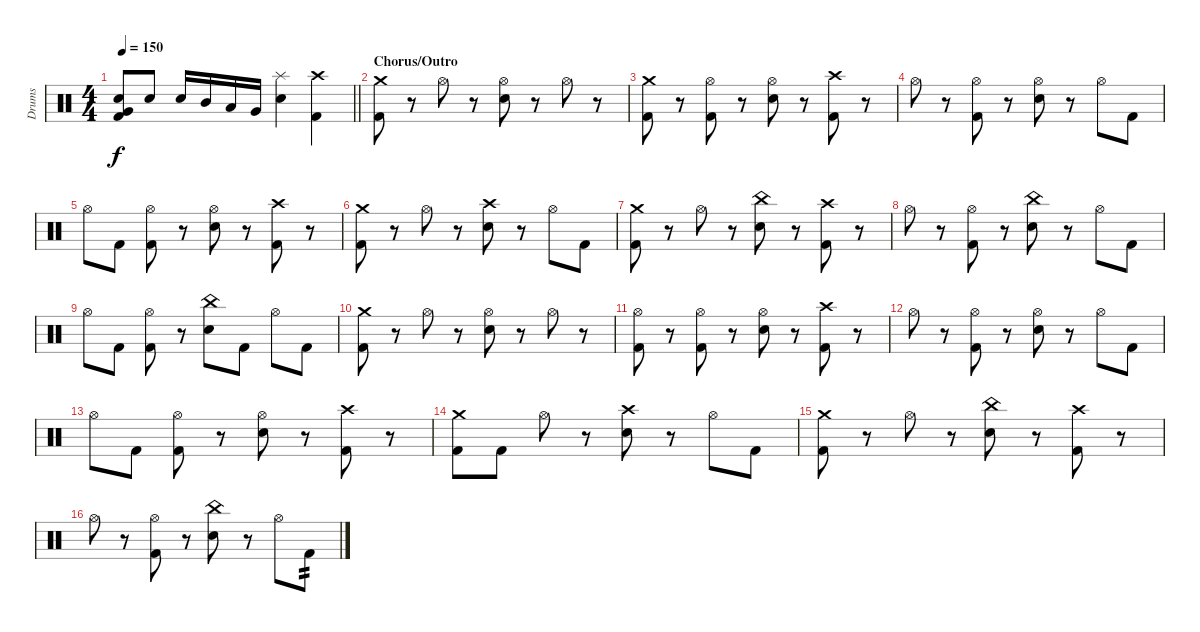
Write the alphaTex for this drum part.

\track ("Drums" "Drums") {instrument percussion}
\staff {score}
\articulation defaults
\ts (4 4)
\tempo 150
\clef neutral
\barLineRight lightlight
\ks c
("Electric Snare (hit)" "Very Low Tom (hit)" "Kick (hit) 2").8{dy f} "Electric Snare (hit)".8 "Electric Snare (hit)".16 "Mid Tom (hit)".16 "Low Tom (hit)".16 "Very Low Tom (hit)".16 ("Splash (hit)" "Electric Snare (hit)").4 ("Crash high (hit)" "Kick (hit) 2").4 |
\section ("" "Chorus/Outro")
("Crash medium (hit)" "Kick (hit) 2").8 r.8 "Hi-Hat (open)".8 r.8 ("Hi-Hat (open)" "Electric Snare (hit)").8 r.8 "Hi-Hat (open)".8 r.8 |
("Crash medium (hit)" "Kick (hit) 2").8 r.8 ("Hi-Hat (open)" "Kick (hit) 2").8 r.8 ("Hi-Hat (open)" "Electric Snare (hit)").8 r.8 ("Crash high (hit)" "Kick (hit) 2").8 r.8 |
"Hi-Hat (open)".8 r.8 ("Hi-Hat (open)" "Kick (hit) 2").8 r.8 ("Hi-Hat (open)" "Electric Snare (hit)").8 r.8 "Hi-Hat (open)".8 "Kick (hit) 2".8 |
"Hi-Hat (open)".8 "Kick (hit) 2".8 ("Hi-Hat (open)" "Kick (hit) 2").8 r.8 ("Hi-Hat (open)" "Electric Snare (hit)").8 r.8 ("Crash high (hit)" "Kick (hit) 2").8 r.8 |
("Crash medium (hit)" "Kick (hit) 2").8 r.8 "Hi-Hat (open)".8 r.8 ("Crash high (hit)" "Electric Snare (hit)").8 r.8 "Hi-Hat (open)".8 "Kick (hit) 2".8 |
("Crash medium (hit)" "Kick (hit) 2").8 r.8 "Hi-Hat (open)".8 r.8 ("China (hit)" "Electric Snare (hit)").8 r.8 ("Crash high (hit)" "Kick (hit) 2").8 r.8 |
"Hi-Hat (open)".8 r.8 ("Hi-Hat (open)" "Kick (hit) 2").8 r.8 ("China (hit)" "Electric Snare (hit)").8 r.8 "Hi-Hat (open)".8 "Kick (hit) 2".8 |
"Hi-Hat (open)".8 "Kick (hit) 2".8 ("Hi-Hat (open)" "Kick (hit) 2").8 r.8 ("China (hit)" "Electric Snare (hit)").8 "Kick (hit) 2".8 "Hi-Hat (open)".8 "Kick (hit) 2".8 |
("Crash medium (hit)" "Kick (hit) 2").8 r.8 "Hi-Hat (open)".8 r.8 ("Hi-Hat (open)" "Electric Snare (hit)").8 r.8 "Hi-Hat (open)".8 r.8 |
("Hi-Hat (open)" "Kick (hit) 2").8 r.8 ("Hi-Hat (open)" "Kick (hit) 2").8 r.8 ("Hi-Hat (open)" "Electric Snare (hit)").8 r.8 ("Crash high (hit)" "Kick (hit) 2").8 r.8 |
"Hi-Hat (open)".8 r.8 ("Hi-Hat (open)" "Kick (hit) 2").8 r.8 ("Hi-Hat (open)" "Electric Snare (hit)").8 r.8 "Hi-Hat (open)".8 "Kick (hit) 2".8 |
"Hi-Hat (open)".8 "Kick (hit) 2".8 ("Hi-Hat (open)" "Kick (hit) 2").8 r.8 ("Hi-Hat (open)" "Electric Snare (hit)").8 r.8 ("Crash high (hit)" "Kick (hit) 2").8 r.8 |
("Crash medium (hit)" "Kick (hit) 2").8 "Kick (hit) 2".8 "Hi-Hat (open)".8 r.8 ("Crash high (hit)" "Electric Snare (hit)").8 r.8 "Hi-Hat (open)".8 "Kick (hit) 2".8 |
("Crash medium (hit)" "Kick (hit) 2").8 r.8 "Hi-Hat (open)".8 r.8 ("China (hit)" "Electric Snare (hit)").8 r.8 ("Crash high (hit)" "Kick (hit) 2").8 r.8 |
"Hi-Hat (open)".8 r.8 ("Hi-Hat (open)" "Kick (hit) 2").8 r.8 ("China (hit)" "Electric Snare (hit)").8 r.8 "Hi-Hat (open)".8 "Kick (hit) 2".8{tp 2}
